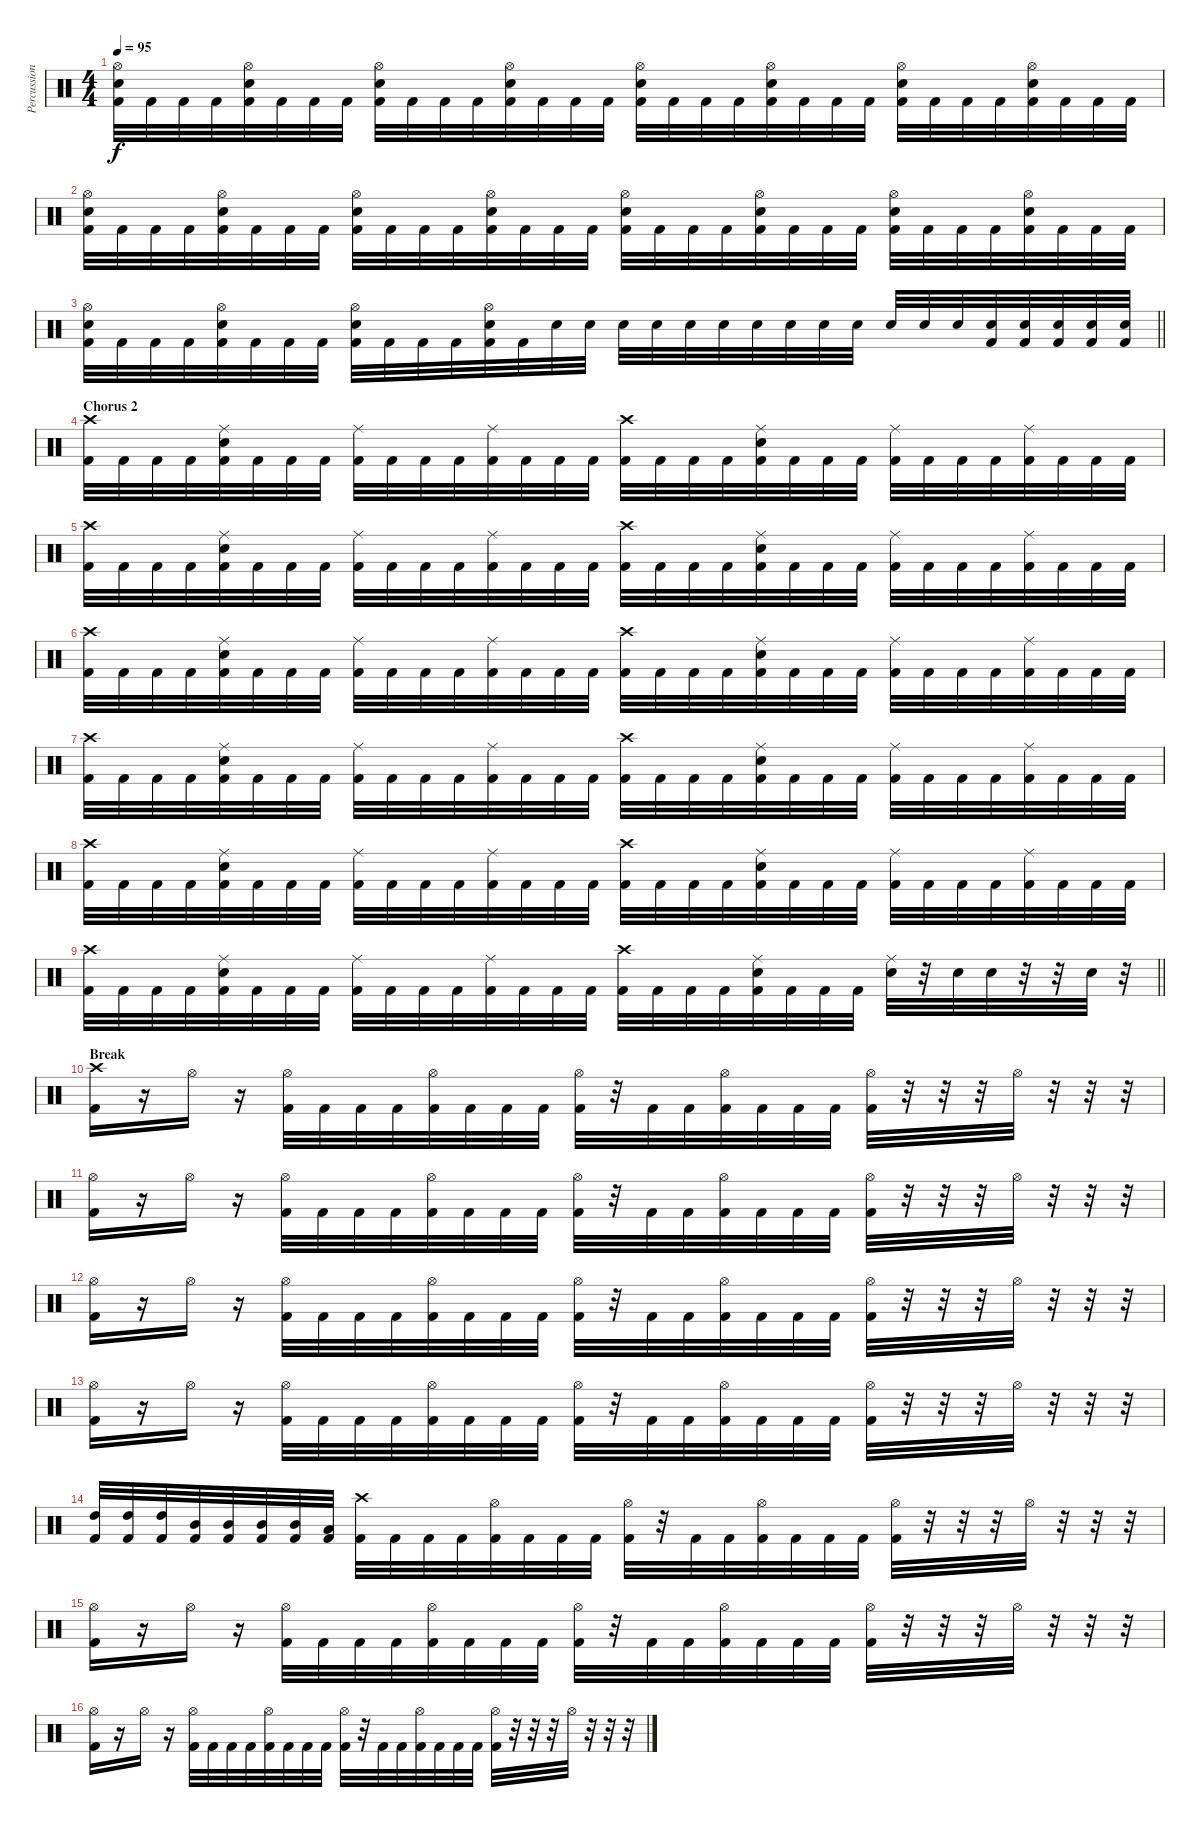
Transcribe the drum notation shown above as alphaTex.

\track ("Percussion" "Percussion") {instrument percussion}
\staff {score}
\articulation defaults
\ts (4 4)
\tempo 95
\clef neutral
\ks c
("Hi-Hat (open)" "Electric Snare (hit)" "Kick (hit) 2").32{dy f} "Kick (hit) 2".32 "Kick (hit) 2".32 "Kick (hit) 2".32 ("Hi-Hat (open)" "Electric Snare (hit)" "Kick (hit) 2").32 "Kick (hit) 2".32 "Kick (hit) 2".32 "Kick (hit) 2".32 ("Hi-Hat (open)" "Electric Snare (hit)" "Kick (hit) 2").32 "Kick (hit) 2".32 "Kick (hit) 2".32 "Kick (hit) 2".32 ("Hi-Hat (open)" "Electric Snare (hit)" "Kick (hit) 2").32 "Kick (hit) 2".32 "Kick (hit) 2".32 "Kick (hit) 2".32 ("Hi-Hat (open)" "Electric Snare (hit)" "Kick (hit) 2").32 "Kick (hit) 2".32 "Kick (hit) 2".32 "Kick (hit) 2".32 ("Hi-Hat (open)" "Electric Snare (hit)" "Kick (hit) 2").32 "Kick (hit) 2".32 "Kick (hit) 2".32 "Kick (hit) 2".32 ("Hi-Hat (open)" "Electric Snare (hit)" "Kick (hit) 2").32 "Kick (hit) 2".32 "Kick (hit) 2".32 "Kick (hit) 2".32 ("Hi-Hat (open)" "Electric Snare (hit)" "Kick (hit) 2").32 "Kick (hit) 2".32 "Kick (hit) 2".32 "Kick (hit) 2".32 |
("Hi-Hat (open)" "Electric Snare (hit)" "Kick (hit) 2").32 "Kick (hit) 2".32 "Kick (hit) 2".32 "Kick (hit) 2".32 ("Hi-Hat (open)" "Electric Snare (hit)" "Kick (hit) 2").32 "Kick (hit) 2".32 "Kick (hit) 2".32 "Kick (hit) 2".32 ("Hi-Hat (open)" "Electric Snare (hit)" "Kick (hit) 2").32 "Kick (hit) 2".32 "Kick (hit) 2".32 "Kick (hit) 2".32 ("Hi-Hat (open)" "Electric Snare (hit)" "Kick (hit) 2").32 "Kick (hit) 2".32 "Kick (hit) 2".32 "Kick (hit) 2".32 ("Hi-Hat (open)" "Electric Snare (hit)" "Kick (hit) 2").32 "Kick (hit) 2".32 "Kick (hit) 2".32 "Kick (hit) 2".32 ("Hi-Hat (open)" "Electric Snare (hit)" "Kick (hit) 2").32 "Kick (hit) 2".32 "Kick (hit) 2".32 "Kick (hit) 2".32 ("Hi-Hat (open)" "Electric Snare (hit)" "Kick (hit) 2").32 "Kick (hit) 2".32 "Kick (hit) 2".32 "Kick (hit) 2".32 ("Hi-Hat (open)" "Electric Snare (hit)" "Kick (hit) 2").32 "Kick (hit) 2".32 "Kick (hit) 2".32 "Kick (hit) 2".32 |
\barLineRight lightlight
("Hi-Hat (open)" "Electric Snare (hit)" "Kick (hit) 2").32 "Kick (hit) 2".32 "Kick (hit) 2".32 "Kick (hit) 2".32 ("Hi-Hat (open)" "Electric Snare (hit)" "Kick (hit) 2").32 "Kick (hit) 2".32 "Kick (hit) 2".32 "Kick (hit) 2".32 ("Hi-Hat (open)" "Electric Snare (hit)" "Kick (hit) 2").32 "Kick (hit) 2".32 "Kick (hit) 2".32 "Kick (hit) 2".32 ("Hi-Hat (open)" "Electric Snare (hit)" "Kick (hit) 2").32 "Kick (hit) 2".32 "Electric Snare (hit)".32 "Electric Snare (hit)".32 "Electric Snare (hit)".32 "Electric Snare (hit)".32 "Electric Snare (hit)".32 "Electric Snare (hit)".32 "Electric Snare (hit)".32 "Electric Snare (hit)".32 "Electric Snare (hit)".32 "Electric Snare (hit)".32 "Electric Snare (hit)".32 "Electric Snare (hit)".32 "Electric Snare (hit)".32 ("Electric Snare (hit)" "Kick (hit) 2").32 ("Electric Snare (hit)" "Kick (hit) 2").32 ("Electric Snare (hit)" "Kick (hit) 2").32 ("Electric Snare (hit)" "Kick (hit) 2").32 ("Electric Snare (hit)" "Kick (hit) 2").32 |
\section ("" "Chorus 2")
("Crash high (hit)" "Kick (hit) 2").32 "Kick (hit) 2".32 "Kick (hit) 2".32 "Kick (hit) 2".32 ("Ride (middle)" "Electric Snare (hit)" "Kick (hit) 2").32 "Kick (hit) 2".32 "Kick (hit) 2".32 "Kick (hit) 2".32 ("Ride (middle)" "Kick (hit) 2").32 "Kick (hit) 2".32 "Kick (hit) 2".32 "Kick (hit) 2".32 ("Ride (middle)" "Kick (hit) 2").32 "Kick (hit) 2".32 "Kick (hit) 2".32 "Kick (hit) 2".32 ("Crash high (hit)" "Kick (hit) 2").32 "Kick (hit) 2".32 "Kick (hit) 2".32 "Kick (hit) 2".32 ("Ride (middle)" "Electric Snare (hit)" "Kick (hit) 2").32 "Kick (hit) 2".32 "Kick (hit) 2".32 "Kick (hit) 2".32 ("Ride (middle)" "Kick (hit) 2").32 "Kick (hit) 2".32 "Kick (hit) 2".32 "Kick (hit) 2".32 ("Ride (middle)" "Kick (hit) 2").32 "Kick (hit) 2".32 "Kick (hit) 2".32 "Kick (hit) 2".32 |
("Crash high (hit)" "Kick (hit) 2").32 "Kick (hit) 2".32 "Kick (hit) 2".32 "Kick (hit) 2".32 ("Ride (middle)" "Electric Snare (hit)" "Kick (hit) 2").32 "Kick (hit) 2".32 "Kick (hit) 2".32 "Kick (hit) 2".32 ("Ride (middle)" "Kick (hit) 2").32 "Kick (hit) 2".32 "Kick (hit) 2".32 "Kick (hit) 2".32 ("Ride (middle)" "Kick (hit) 2").32 "Kick (hit) 2".32 "Kick (hit) 2".32 "Kick (hit) 2".32 ("Crash high (hit)" "Kick (hit) 2").32 "Kick (hit) 2".32 "Kick (hit) 2".32 "Kick (hit) 2".32 ("Ride (middle)" "Electric Snare (hit)" "Kick (hit) 2").32 "Kick (hit) 2".32 "Kick (hit) 2".32 "Kick (hit) 2".32 ("Ride (middle)" "Kick (hit) 2").32 "Kick (hit) 2".32 "Kick (hit) 2".32 "Kick (hit) 2".32 ("Ride (middle)" "Kick (hit) 2").32 "Kick (hit) 2".32 "Kick (hit) 2".32 "Kick (hit) 2".32 |
("Crash high (hit)" "Kick (hit) 2").32 "Kick (hit) 2".32 "Kick (hit) 2".32 "Kick (hit) 2".32 ("Ride (middle)" "Electric Snare (hit)" "Kick (hit) 2").32 "Kick (hit) 2".32 "Kick (hit) 2".32 "Kick (hit) 2".32 ("Ride (middle)" "Kick (hit) 2").32 "Kick (hit) 2".32 "Kick (hit) 2".32 "Kick (hit) 2".32 ("Ride (middle)" "Kick (hit) 2").32 "Kick (hit) 2".32 "Kick (hit) 2".32 "Kick (hit) 2".32 ("Crash high (hit)" "Kick (hit) 2").32 "Kick (hit) 2".32 "Kick (hit) 2".32 "Kick (hit) 2".32 ("Ride (middle)" "Electric Snare (hit)" "Kick (hit) 2").32 "Kick (hit) 2".32 "Kick (hit) 2".32 "Kick (hit) 2".32 ("Ride (middle)" "Kick (hit) 2").32 "Kick (hit) 2".32 "Kick (hit) 2".32 "Kick (hit) 2".32 ("Ride (middle)" "Kick (hit) 2").32 "Kick (hit) 2".32 "Kick (hit) 2".32 "Kick (hit) 2".32 |
("Crash high (hit)" "Kick (hit) 2").32 "Kick (hit) 2".32 "Kick (hit) 2".32 "Kick (hit) 2".32 ("Ride (middle)" "Electric Snare (hit)" "Kick (hit) 2").32 "Kick (hit) 2".32 "Kick (hit) 2".32 "Kick (hit) 2".32 ("Ride (middle)" "Kick (hit) 2").32 "Kick (hit) 2".32 "Kick (hit) 2".32 "Kick (hit) 2".32 ("Ride (middle)" "Kick (hit) 2").32 "Kick (hit) 2".32 "Kick (hit) 2".32 "Kick (hit) 2".32 ("Crash high (hit)" "Kick (hit) 2").32 "Kick (hit) 2".32 "Kick (hit) 2".32 "Kick (hit) 2".32 ("Ride (middle)" "Electric Snare (hit)" "Kick (hit) 2").32 "Kick (hit) 2".32 "Kick (hit) 2".32 "Kick (hit) 2".32 ("Ride (middle)" "Kick (hit) 2").32 "Kick (hit) 2".32 "Kick (hit) 2".32 "Kick (hit) 2".32 ("Ride (middle)" "Kick (hit) 2").32 "Kick (hit) 2".32 "Kick (hit) 2".32 "Kick (hit) 2".32 |
("Crash high (hit)" "Kick (hit) 2").32 "Kick (hit) 2".32 "Kick (hit) 2".32 "Kick (hit) 2".32 ("Ride (middle)" "Electric Snare (hit)" "Kick (hit) 2").32 "Kick (hit) 2".32 "Kick (hit) 2".32 "Kick (hit) 2".32 ("Ride (middle)" "Kick (hit) 2").32 "Kick (hit) 2".32 "Kick (hit) 2".32 "Kick (hit) 2".32 ("Ride (middle)" "Kick (hit) 2").32 "Kick (hit) 2".32 "Kick (hit) 2".32 "Kick (hit) 2".32 ("Crash high (hit)" "Kick (hit) 2").32 "Kick (hit) 2".32 "Kick (hit) 2".32 "Kick (hit) 2".32 ("Ride (middle)" "Electric Snare (hit)" "Kick (hit) 2").32 "Kick (hit) 2".32 "Kick (hit) 2".32 "Kick (hit) 2".32 ("Ride (middle)" "Kick (hit) 2").32 "Kick (hit) 2".32 "Kick (hit) 2".32 "Kick (hit) 2".32 ("Ride (middle)" "Kick (hit) 2").32 "Kick (hit) 2".32 "Kick (hit) 2".32 "Kick (hit) 2".32 |
\barLineRight lightlight
("Crash high (hit)" "Kick (hit) 2").32 "Kick (hit) 2".32 "Kick (hit) 2".32 "Kick (hit) 2".32 ("Ride (middle)" "Electric Snare (hit)" "Kick (hit) 2").32 "Kick (hit) 2".32 "Kick (hit) 2".32 "Kick (hit) 2".32 ("Ride (middle)" "Kick (hit) 2").32 "Kick (hit) 2".32 "Kick (hit) 2".32 "Kick (hit) 2".32 ("Ride (middle)" "Kick (hit) 2").32 "Kick (hit) 2".32 "Kick (hit) 2".32 "Kick (hit) 2".32 ("Crash high (hit)" "Kick (hit) 2").32 "Kick (hit) 2".32 "Kick (hit) 2".32 "Kick (hit) 2".32 ("Ride (middle)" "Electric Snare (hit)" "Kick (hit) 2").32 "Kick (hit) 2".32 "Kick (hit) 2".32 "Kick (hit) 2".32 ("Ride (middle)" "Electric Snare (hit)").32 r.32 "Electric Snare (hit)".32 "Electric Snare (hit)".32 r.32 r.32 "Electric Snare (hit)".32 r.32 |
\section ("" "Break ")
("Crash high (hit)" "Kick (hit) 2").16 r.16 "Hi-Hat (open)".16 r.16 ("Hi-Hat (open)" "Kick (hit) 2").32 "Kick (hit) 2".32 "Kick (hit) 2".32 "Kick (hit) 2".32 ("Hi-Hat (open)" "Kick (hit) 2").32 "Kick (hit) 2".32 "Kick (hit) 2".32 "Kick (hit) 2".32 ("Hi-Hat (open)" "Kick (hit) 2").32 r.32 "Kick (hit) 2".32 "Kick (hit) 2".32 ("Hi-Hat (open)" "Kick (hit) 2").32 "Kick (hit) 2".32 "Kick (hit) 2".32 "Kick (hit) 2".32 ("Hi-Hat (open)" "Kick (hit) 2").32 r.32 r.32 r.32 "Hi-Hat (open)".32 r.32 r.32 r.32 |
("Hi-Hat (open)" "Kick (hit) 2").16 r.16 "Hi-Hat (open)".16 r.16 ("Hi-Hat (open)" "Kick (hit) 2").32 "Kick (hit) 2".32 "Kick (hit) 2".32 "Kick (hit) 2".32 ("Hi-Hat (open)" "Kick (hit) 2").32 "Kick (hit) 2".32 "Kick (hit) 2".32 "Kick (hit) 2".32 ("Hi-Hat (open)" "Kick (hit) 2").32 r.32 "Kick (hit) 2".32 "Kick (hit) 2".32 ("Hi-Hat (open)" "Kick (hit) 2").32 "Kick (hit) 2".32 "Kick (hit) 2".32 "Kick (hit) 2".32 ("Hi-Hat (open)" "Kick (hit) 2").32 r.32 r.32 r.32 "Hi-Hat (open)".32 r.32 r.32 r.32 |
("Hi-Hat (open)" "Kick (hit) 2").16 r.16 "Hi-Hat (open)".16 r.16 ("Hi-Hat (open)" "Kick (hit) 2").32 "Kick (hit) 2".32 "Kick (hit) 2".32 "Kick (hit) 2".32 ("Hi-Hat (open)" "Kick (hit) 2").32 "Kick (hit) 2".32 "Kick (hit) 2".32 "Kick (hit) 2".32 ("Hi-Hat (open)" "Kick (hit) 2").32 r.32 "Kick (hit) 2".32 "Kick (hit) 2".32 ("Hi-Hat (open)" "Kick (hit) 2").32 "Kick (hit) 2".32 "Kick (hit) 2".32 "Kick (hit) 2".32 ("Hi-Hat (open)" "Kick (hit) 2").32 r.32 r.32 r.32 "Hi-Hat (open)".32 r.32 r.32 r.32 |
("Hi-Hat (open)" "Kick (hit) 2").16 r.16 "Hi-Hat (open)".16 r.16 ("Hi-Hat (open)" "Kick (hit) 2").32 "Kick (hit) 2".32 "Kick (hit) 2".32 "Kick (hit) 2".32 ("Hi-Hat (open)" "Kick (hit) 2").32 "Kick (hit) 2".32 "Kick (hit) 2".32 "Kick (hit) 2".32 ("Hi-Hat (open)" "Kick (hit) 2").32 r.32 "Kick (hit) 2".32 "Kick (hit) 2".32 ("Hi-Hat (open)" "Kick (hit) 2").32 "Kick (hit) 2".32 "Kick (hit) 2".32 "Kick (hit) 2".32 ("Hi-Hat (open)" "Kick (hit) 2").32 r.32 r.32 r.32 "Hi-Hat (open)".32 r.32 r.32 r.32 |
("High Tom (hit)" "Kick (hit) 2").32 ("High Tom (hit)" "Kick (hit) 2").32 ("High Tom (hit)" "Kick (hit) 2").32 ("Mid Tom (hit)" "Kick (hit) 2").32 ("Mid Tom (hit)" "Kick (hit) 2").32 ("Mid Tom (hit)" "Kick (hit) 2").32 ("Mid Tom (hit)" "Kick (hit) 2").32 ("Low Tom (hit)" "Kick (hit) 2").32 ("Crash high (hit)" "Kick (hit) 2").32 "Kick (hit) 2".32 "Kick (hit) 2".32 "Kick (hit) 2".32 ("Hi-Hat (open)" "Kick (hit) 2").32 "Kick (hit) 2".32 "Kick (hit) 2".32 "Kick (hit) 2".32 ("Hi-Hat (open)" "Kick (hit) 2").32 r.32 "Kick (hit) 2".32 "Kick (hit) 2".32 ("Hi-Hat (open)" "Kick (hit) 2").32 "Kick (hit) 2".32 "Kick (hit) 2".32 "Kick (hit) 2".32 ("Hi-Hat (open)" "Kick (hit) 2").32 r.32 r.32 r.32 "Hi-Hat (open)".32 r.32 r.32 r.32 |
("Hi-Hat (open)" "Kick (hit) 2").16 r.16 "Hi-Hat (open)".16 r.16 ("Hi-Hat (open)" "Kick (hit) 2").32 "Kick (hit) 2".32 "Kick (hit) 2".32 "Kick (hit) 2".32 ("Hi-Hat (open)" "Kick (hit) 2").32 "Kick (hit) 2".32 "Kick (hit) 2".32 "Kick (hit) 2".32 ("Hi-Hat (open)" "Kick (hit) 2").32 r.32 "Kick (hit) 2".32 "Kick (hit) 2".32 ("Hi-Hat (open)" "Kick (hit) 2").32 "Kick (hit) 2".32 "Kick (hit) 2".32 "Kick (hit) 2".32 ("Hi-Hat (open)" "Kick (hit) 2").32 r.32 r.32 r.32 "Hi-Hat (open)".32 r.32 r.32 r.32 |
("Hi-Hat (open)" "Kick (hit) 2").16 r.16 "Hi-Hat (open)".16 r.16 ("Hi-Hat (open)" "Kick (hit) 2").32 "Kick (hit) 2".32 "Kick (hit) 2".32 "Kick (hit) 2".32 ("Hi-Hat (open)" "Kick (hit) 2").32 "Kick (hit) 2".32 "Kick (hit) 2".32 "Kick (hit) 2".32 ("Hi-Hat (open)" "Kick (hit) 2").32 r.32 "Kick (hit) 2".32 "Kick (hit) 2".32 ("Hi-Hat (open)" "Kick (hit) 2").32 "Kick (hit) 2".32 "Kick (hit) 2".32 "Kick (hit) 2".32 ("Hi-Hat (open)" "Kick (hit) 2").32 r.32 r.32 r.32 "Hi-Hat (open)".32 r.32 r.32 r.32
